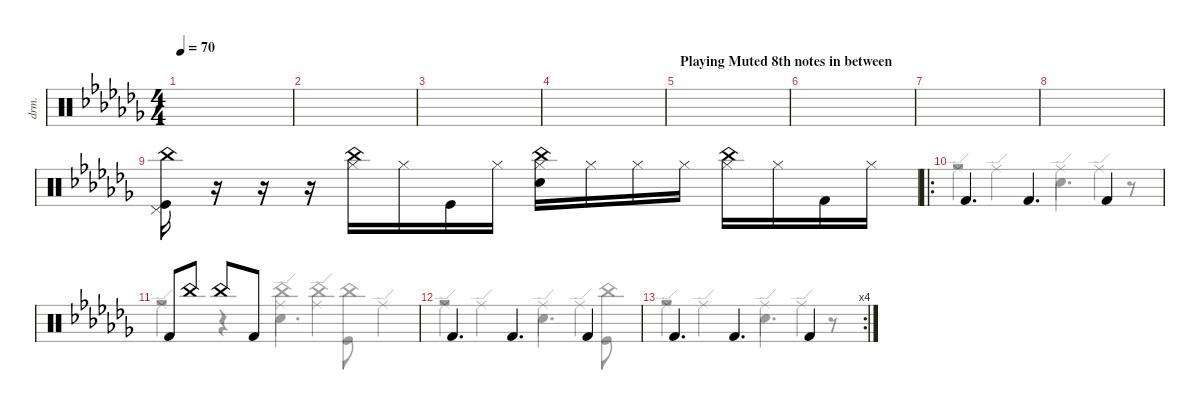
\defaultSystemsLayout 4
\hideDynamics
\bracketExtendMode nobrackets
\track ("Drumkit" "drm.") {instrument percussion}
\staff {score}
\articulation defaults
\voice
\ts (4 4)
\section ("" "")
\tempo 70
\clef neutral
\ks abminor
|
|
|
|
\section ("" "Playing Muted 8th notes in between")
|
|
|
|
("China (hit)"{acc forcenatural} "Pedal Hi-Hat (hit)"{acc forcenatural} "Kick (hit)"{acc forcenatural}).16 r.16 r.16 r.16 ("Hi-Hat (closed)"{acc forcenatural} "China (hit)"{acc forcenatural}).16 "Hi-Hat (closed)"{acc forcenatural}.16 "Kick (hit)"{acc forcenatural}.16 "Hi-Hat (closed)"{acc forcenatural}.16 ("Hi-Hat (closed)"{acc forcenatural} "Snare (hit) 2"{acc forcenatural} "China (hit)"{acc forcenatural}).16 "Hi-Hat (closed)"{acc forcenatural}.16 "Hi-Hat (closed)"{acc forcenatural}.16 "Hi-Hat (closed)"{acc forcenatural}.16 ("Hi-Hat (closed)"{acc forcenatural} "China (hit)"{acc forcenatural}).16 "Hi-Hat (closed)"{acc forcenatural}.16 "Kick (hit) 2"{acc forcenatural}.16 "Hi-Hat (closed)"{acc forcenatural}.16 |
\ro "Kick (hit) 2"{acc forcenatural}.4{d} "Kick (hit) 2"{acc forcenatural}.4{d} "Kick (hit) 2"{acc forcenatural}.4
|
"Kick (hit) 2"{acc forcenatural}.8 "China (hit)"{acc forcenatural}.8 "China (hit)"{acc forcenatural}.8 "Kick (hit) 2"{acc forcenatural}.8 |
"Kick (hit) 2"{acc forcenatural}.4{d} "Kick (hit) 2"{acc forcenatural}.4{d} "Kick (hit) 2"{acc forcenatural}.4 |
\rc 4 "Kick (hit) 2"{acc forcenatural}.4{d beam Up} "Kick (hit) 2"{acc forcenatural}.4{d beam Up} "Kick (hit) 2"{acc forcenatural}.4{beam Up}
\voice
\clef neutral
\ottava regular
\simile none
\ks abminor
|
|
|
|
|
|
|
|
|
r.2 "Snare (hit) 2"{acc forcenatural}.4{d} r.8 |
r.2 "Snare (hit) 2"{acc forcenatural}.4{d} ("Kick (hit)"{acc forcenatural} "China (hit)"{acc forcenatural}).8 |
r.2 "Snare (hit) 2"{acc forcenatural}.4{d} ("Kick (hit)"{acc forcenatural} "China (hit)"{acc forcenatural}).8 |
r.2{beam Down} "Snare (hit) 2"{acc forcenatural}.4{d beam Down} r.8{beam Down}
\voice
\clef neutral
\ottava regular
\simile none
\ks abminor
|
|
|
|
|
|
|
|
|
"Ride (edge)"{acc forcenatural}.4 "Ride (edge)"{acc forcenatural}.4 "Ride (edge)"{acc forcenatural}.4 "Ride (edge)"{acc forcenatural}.4 |
"Ride (edge)"{acc forcenatural}.4 r.4 ("Ride (edge)"{acc forcenatural} "China (hit)"{acc forcenatural}).4 ("Ride (edge)"{acc forcenatural} "China (hit)"{acc forcenatural}).4 "Ride (edge)"{acc forcenatural}.4 |
"Ride (edge)"{acc forcenatural}.4 "Ride (edge)"{acc forcenatural}.4 "Ride (edge)"{acc forcenatural}.4 "Ride (edge)"{acc forcenatural}.4 |
"Ride (edge)"{acc forcenatural}.4{beam Down} "Ride (edge)"{acc forcenatural}.4{beam Down} "Ride (edge)"{acc forcenatural}.4{beam Down} "Ride (edge)"{acc forcenatural}.4{beam Down}
